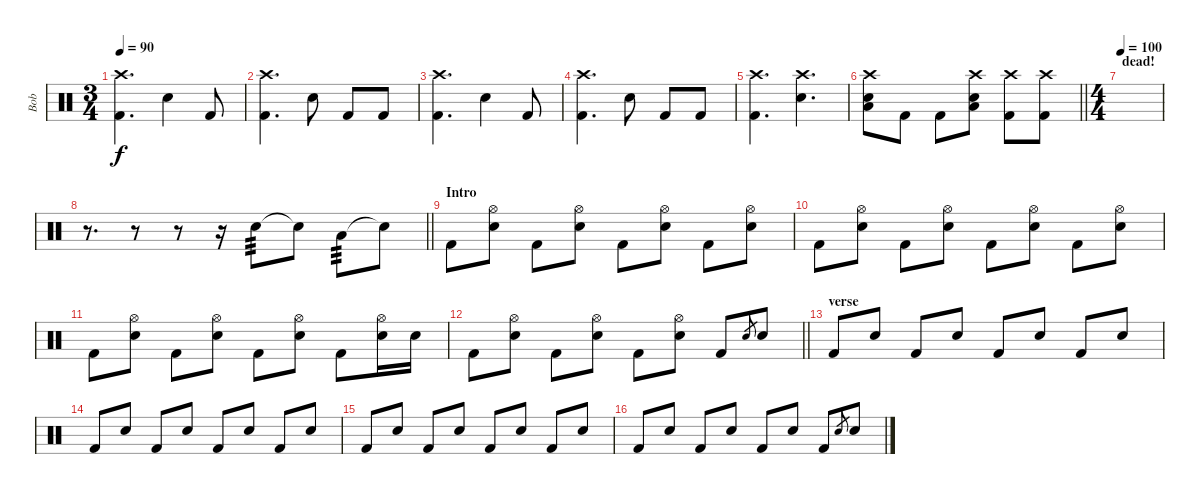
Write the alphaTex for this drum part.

\track ("Bob" "Bob") {instrument percussion}
\staff {score}
\articulation defaults
\ts (3 4)
\tempo 90
\clef neutral
\ks c
("Crash high (hit)" "Kick (hit) 2").4{d dy f} "Electric Snare (hit)".4 "Kick (hit) 2".8 |
("Crash high (hit)" "Kick (hit) 2").4{d} "Electric Snare (hit)".8 "Kick (hit) 2".8 "Kick (hit) 2".8 |
("Crash high (hit)" "Kick (hit) 2").4{d} "Electric Snare (hit)".4 "Kick (hit) 2".8 |
("Crash high (hit)" "Kick (hit) 2").4{d} "Electric Snare (hit)".8 "Kick (hit) 2".8 "Kick (hit) 2".8 |
("Crash high (hit)" "Kick (hit) 2").4{d} ("Crash high (hit)" "Electric Snare (hit)").4{d} |
\barLineRight lightlight
("Crash high (hit)" "Electric Snare (hit)" "Low Floor Tom (hit)").8 "Kick (hit) 2".8 "Kick (hit) 2".8 ("Crash high (hit)" "Electric Snare (hit)" "Low Floor Tom (hit)").8 ("Crash high (hit)" "Kick (hit) 2").8 ("Crash high (hit)" "Kick (hit) 2").8 |
\ts (4 4)
\section ("" "dead! ")
\tempo 100
|
\barLineRight lightlight
r.8{d} r.8 r.8 r.16 "Electric Snare (hit)".8{tp 3} "Snare (hit)"{t}.8 "Low Tom (hit)".8{tp 3} "Snare (hit)"{t}.8 |
\section ("" "Intro")
"Kick (hit) 2".8 ("Hi-Hat (open)" "Electric Snare (hit)").8 "Kick (hit) 2".8 ("Hi-Hat (open)" "Electric Snare (hit)").8 "Kick (hit) 2".8 ("Hi-Hat (open)" "Electric Snare (hit)").8 "Kick (hit) 2".8 ("Hi-Hat (open)" "Electric Snare (hit)").8 |
"Kick (hit) 2".8 ("Hi-Hat (open)" "Electric Snare (hit)").8 "Kick (hit) 2".8 ("Hi-Hat (open)" "Electric Snare (hit)").8 "Kick (hit) 2".8 ("Hi-Hat (open)" "Electric Snare (hit)").8 "Kick (hit) 2".8 ("Hi-Hat (open)" "Electric Snare (hit)").8 |
"Kick (hit) 2".8 ("Hi-Hat (open)" "Electric Snare (hit)").8 "Kick (hit) 2".8 ("Hi-Hat (open)" "Electric Snare (hit)").8 "Kick (hit) 2".8 ("Hi-Hat (open)" "Electric Snare (hit)").8 "Kick (hit) 2".8 ("Hi-Hat (open)" "Electric Snare (hit)").16 "Electric Snare (hit)".16 |
\barLineRight lightlight "Kick (hit) 2".8
("Hi-Hat (open)" "Electric Snare (hit)").8 "Kick (hit) 2".8 ("Hi-Hat (open)" "Electric Snare (hit)").8 "Kick (hit) 2".8 ("Hi-Hat (open)" "Electric Snare (hit)").8 "Kick (hit) 2".8 "Electric Snare (hit)".8{gr} "Electric Snare (hit)".8 |
\section ("" "verse")
"Kick (hit) 2".8 "Electric Snare (hit)".8 "Kick (hit) 2".8 "Electric Snare (hit)".8 "Kick (hit) 2".8 "Electric Snare (hit)".8 "Kick (hit) 2".8 "Electric Snare (hit)".8 |
"Kick (hit) 2".8 "Electric Snare (hit)".8 "Kick (hit) 2".8 "Electric Snare (hit)".8 "Kick (hit) 2".8 "Electric Snare (hit)".8 "Kick (hit) 2".8 "Electric Snare (hit)".8 |
"Kick (hit) 2".8 "Electric Snare (hit)".8 "Kick (hit) 2".8 "Electric Snare (hit)".8 "Kick (hit) 2".8 "Electric Snare (hit)".8 "Kick (hit) 2".8 "Electric Snare (hit)".8 |
"Kick (hit) 2".8 "Electric Snare (hit)".8 "Kick (hit) 2".8 "Electric Snare (hit)".8 "Kick (hit) 2".8 "Electric Snare (hit)".8 "Kick (hit) 2".8 "Electric Snare (hit)".8{gr} "Electric Snare (hit)".8
